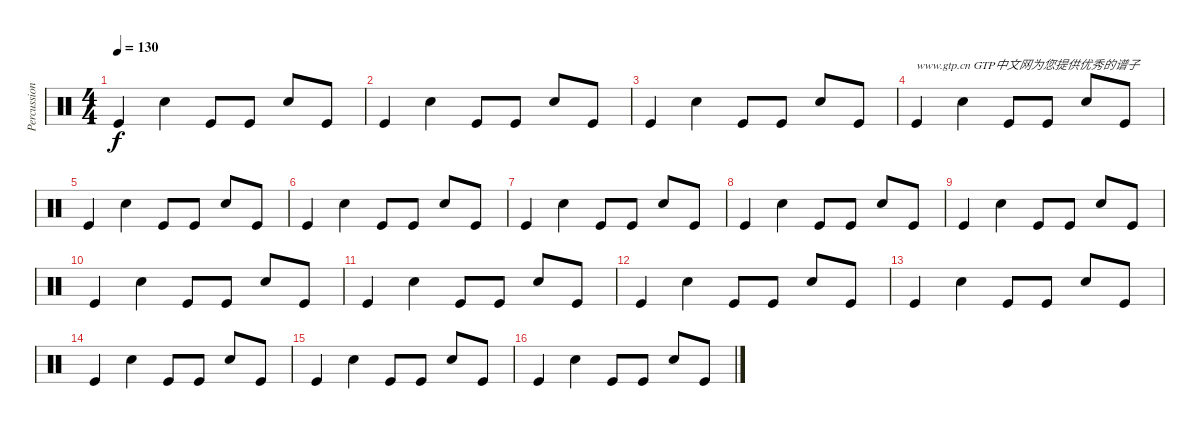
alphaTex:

\track ("Percussion" "Percussion") {instrument percussion}
\staff {score}
\articulation defaults
\ts (4 4)
\tempo 130
\clef neutral
\ks c "Kick (hit)".4{dy f} "Snare (hit) 2".4 "Kick (hit)".8 "Kick (hit)".8 "Snare (hit) 2".8 "Kick (hit)".8
|
"Kick (hit)".4 "Snare (hit) 2".4 "Kick (hit)".8 "Kick (hit)".8 "Snare (hit) 2".8 "Kick (hit)".8 |
"Kick (hit)".4 "Snare (hit) 2".4 "Kick (hit)".8 "Kick (hit)".8 "Snare (hit) 2".8 "Kick (hit)".8 |
"Kick (hit)".4{txt "www.gtp.cn GTP中文网为您提供优秀的谱子"} "Snare (hit) 2".4 "Kick (hit)".8 "Kick (hit)".8 "Snare (hit) 2".8 "Kick (hit)".8 |
"Kick (hit)".4 "Snare (hit) 2".4 "Kick (hit)".8 "Kick (hit)".8 "Snare (hit) 2".8 "Kick (hit)".8 |
"Kick (hit)".4 "Snare (hit) 2".4 "Kick (hit)".8 "Kick (hit)".8 "Snare (hit) 2".8 "Kick (hit)".8 |
"Kick (hit)".4 "Snare (hit) 2".4 "Kick (hit)".8 "Kick (hit)".8 "Snare (hit) 2".8 "Kick (hit)".8 |
"Kick (hit)".4 "Snare (hit) 2".4 "Kick (hit)".8 "Kick (hit)".8 "Snare (hit) 2".8 "Kick (hit)".8 |
"Kick (hit)".4 "Snare (hit) 2".4 "Kick (hit)".8 "Kick (hit)".8 "Snare (hit) 2".8 "Kick (hit)".8 |
"Kick (hit)".4 "Snare (hit) 2".4 "Kick (hit)".8 "Kick (hit)".8 "Snare (hit) 2".8 "Kick (hit)".8 |
"Kick (hit)".4 "Snare (hit) 2".4 "Kick (hit)".8 "Kick (hit)".8 "Snare (hit) 2".8 "Kick (hit)".8 |
"Kick (hit)".4 "Snare (hit) 2".4 "Kick (hit)".8 "Kick (hit)".8 "Snare (hit) 2".8 "Kick (hit)".8 |
"Kick (hit)".4 "Snare (hit) 2".4 "Kick (hit)".8 "Kick (hit)".8 "Snare (hit) 2".8 "Kick (hit)".8 |
"Kick (hit)".4 "Snare (hit) 2".4 "Kick (hit)".8 "Kick (hit)".8 "Snare (hit) 2".8 "Kick (hit)".8 |
"Kick (hit)".4 "Snare (hit) 2".4 "Kick (hit)".8 "Kick (hit)".8 "Snare (hit) 2".8 "Kick (hit)".8 |
"Kick (hit)".4 "Snare (hit) 2".4 "Kick (hit)".8 "Kick (hit)".8 "Snare (hit) 2".8 "Kick (hit)".8
